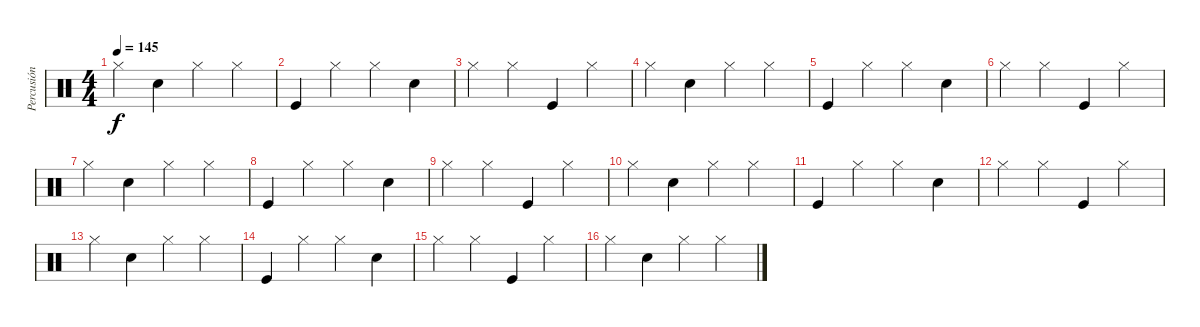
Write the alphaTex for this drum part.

\track ("Percusión" "Percusión") {instrument percussion}
\staff {score}
\articulation defaults
\ts (4 4)
\tempo 145
\clef neutral
\ks c "Hi-Hat (closed)".4{dy f} "Snare (hit) 2".4 "Hi-Hat (closed)".4 "Hi-Hat (closed)".4
|
"Kick (hit)".4 "Hi-Hat (closed)".4 "Hi-Hat (closed)".4 "Snare (hit) 2".4 |
"Hi-Hat (closed)".4 "Hi-Hat (closed)".4 "Kick (hit)".4 "Hi-Hat (closed)".4 |
"Hi-Hat (closed)".4 "Snare (hit) 2".4 "Hi-Hat (closed)".4 "Hi-Hat (closed)".4 |
"Kick (hit)".4 "Hi-Hat (closed)".4 "Hi-Hat (closed)".4 "Snare (hit) 2".4 |
"Hi-Hat (closed)".4 "Hi-Hat (closed)".4 "Kick (hit)".4 "Hi-Hat (closed)".4 |
"Hi-Hat (closed)".4 "Snare (hit) 2".4 "Hi-Hat (closed)".4 "Hi-Hat (closed)".4 |
"Kick (hit)".4 "Hi-Hat (closed)".4 "Hi-Hat (closed)".4 "Snare (hit) 2".4 |
"Hi-Hat (closed)".4 "Hi-Hat (closed)".4 "Kick (hit)".4 "Hi-Hat (closed)".4 |
"Hi-Hat (closed)".4 "Snare (hit) 2".4 "Hi-Hat (closed)".4 "Hi-Hat (closed)".4 |
"Kick (hit)".4 "Hi-Hat (closed)".4 "Hi-Hat (closed)".4 "Snare (hit) 2".4 |
"Hi-Hat (closed)".4 "Hi-Hat (closed)".4 "Kick (hit)".4 "Hi-Hat (closed)".4 |
"Hi-Hat (closed)".4 "Snare (hit) 2".4 "Hi-Hat (closed)".4 "Hi-Hat (closed)".4 |
"Kick (hit)".4 "Hi-Hat (closed)".4 "Hi-Hat (closed)".4 "Snare (hit) 2".4 |
"Hi-Hat (closed)".4 "Hi-Hat (closed)".4 "Kick (hit)".4 "Hi-Hat (closed)".4 |
"Hi-Hat (closed)".4 "Snare (hit) 2".4 "Hi-Hat (closed)".4 "Hi-Hat (closed)".4
